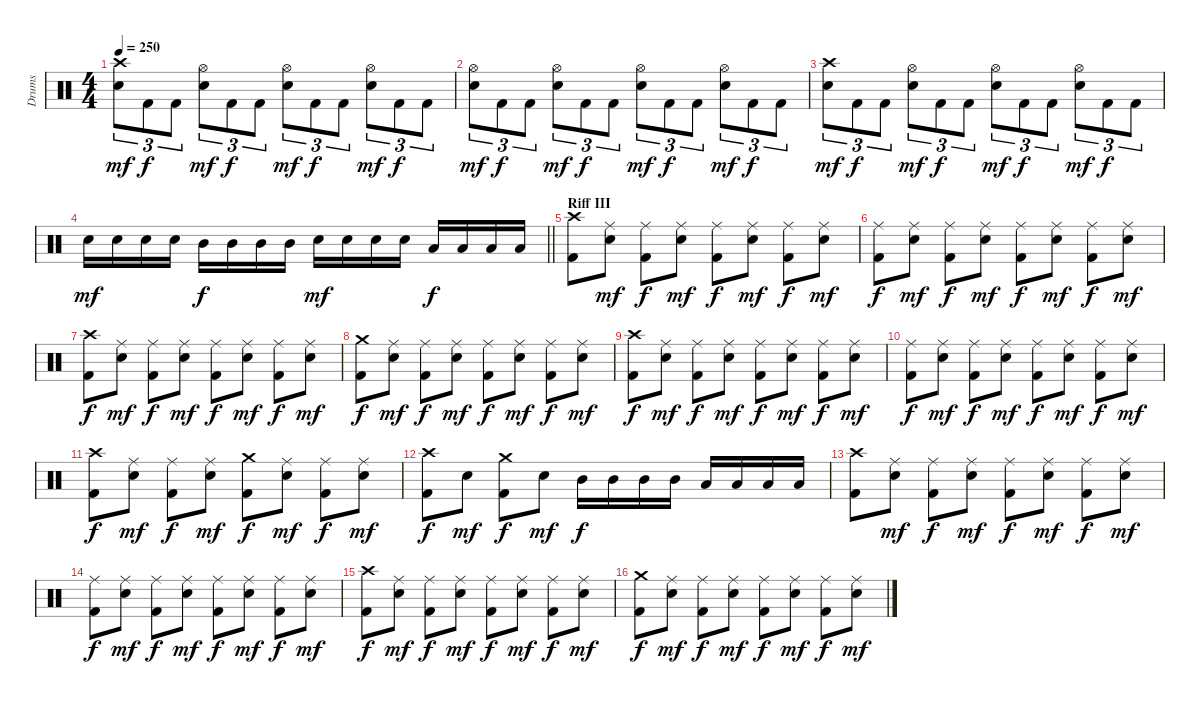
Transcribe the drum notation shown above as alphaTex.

\track ("Drums" "Drums") {instrument percussion}
\staff {score}
\articulation defaults
\ts (4 4)
\tempo 250
\clef neutral
\ks c
("Crash high (hit)" "Electric Snare (hit)").8{tu (3 2) dy mf} "Kick (hit) 2".8{tu (3 2) dy f} "Kick (hit) 2".8{tu (3 2)} ("Hi-Hat (open)" "Electric Snare (hit)").8{tu (3 2) dy mf} "Kick (hit) 2".8{tu (3 2) dy f} "Kick (hit) 2".8{tu (3 2)} ("Hi-Hat (open)" "Electric Snare (hit)").8{tu (3 2) dy mf} "Kick (hit) 2".8{tu (3 2) dy f} "Kick (hit) 2".8{tu (3 2)} ("Hi-Hat (open)" "Electric Snare (hit)").8{tu (3 2) dy mf} "Kick (hit) 2".8{tu (3 2) dy f} "Kick (hit) 2".8{tu (3 2)} |
("Hi-Hat (open)" "Electric Snare (hit)").8{tu (3 2) dy mf} "Kick (hit) 2".8{tu (3 2) dy f} "Kick (hit) 2".8{tu (3 2)} ("Hi-Hat (open)" "Electric Snare (hit)").8{tu (3 2) dy mf} "Kick (hit) 2".8{tu (3 2) dy f} "Kick (hit) 2".8{tu (3 2)} ("Hi-Hat (open)" "Electric Snare (hit)").8{tu (3 2) dy mf} "Kick (hit) 2".8{tu (3 2) dy f} "Kick (hit) 2".8{tu (3 2)} ("Hi-Hat (open)" "Electric Snare (hit)").8{tu (3 2) dy mf} "Kick (hit) 2".8{tu (3 2) dy f} "Kick (hit) 2".8{tu (3 2)} |
("Crash high (hit)" "Electric Snare (hit)").8{tu (3 2) dy mf} "Kick (hit) 2".8{tu (3 2) dy f} "Kick (hit) 2".8{tu (3 2)} ("Hi-Hat (open)" "Electric Snare (hit)").8{tu (3 2) dy mf} "Kick (hit) 2".8{tu (3 2) dy f} "Kick (hit) 2".8{tu (3 2)} ("Hi-Hat (open)" "Electric Snare (hit)").8{tu (3 2) dy mf} "Kick (hit) 2".8{tu (3 2) dy f} "Kick (hit) 2".8{tu (3 2)} ("Hi-Hat (open)" "Electric Snare (hit)").8{tu (3 2) dy mf} "Kick (hit) 2".8{tu (3 2) dy f} "Kick (hit) 2".8{tu (3 2)} |
\barLineRight lightlight "Electric Snare (hit)".16{dy mf} "Electric Snare (hit)".16 "Electric Snare (hit)".16 "Electric Snare (hit)".16 "Mid Tom (hit)".16{dy f} "Mid Tom (hit)".16 "Mid Tom (hit)".16 "Mid Tom (hit)".16 "Electric Snare (hit)".16{dy mf} "Electric Snare (hit)".16 "Electric Snare (hit)".16 "Electric Snare (hit)".16 "Low Tom (hit)".16{dy f} "Low Tom (hit)".16 "Low Tom (hit)".16 "Low Tom (hit)".16
|
\section ("" "Riff III")
("Crash high (hit)" "Kick (hit) 2").8 ("Ride (middle)" "Electric Snare (hit)").8{dy mf} ("Ride (middle)" "Kick (hit) 2").8{dy f} ("Ride (middle)" "Electric Snare (hit)").8{dy mf} ("Ride (middle)" "Kick (hit) 2").8{dy f} ("Ride (middle)" "Electric Snare (hit)").8{dy mf} ("Ride (middle)" "Kick (hit) 2").8{dy f} ("Ride (middle)" "Electric Snare (hit)").8{dy mf} |
("Ride (middle)" "Kick (hit) 2").8{dy f} ("Ride (middle)" "Electric Snare (hit)").8{dy mf} ("Ride (middle)" "Kick (hit) 2").8{dy f} ("Ride (middle)" "Electric Snare (hit)").8{dy mf} ("Ride (middle)" "Kick (hit) 2").8{dy f} ("Ride (middle)" "Electric Snare (hit)").8{dy mf} ("Ride (middle)" "Kick (hit) 2").8{dy f} ("Ride (middle)" "Electric Snare (hit)").8{dy mf} |
("Crash high (hit)" "Kick (hit) 2").8{dy f} ("Ride (middle)" "Electric Snare (hit)").8{dy mf} ("Ride (middle)" "Kick (hit) 2").8{dy f} ("Ride (middle)" "Electric Snare (hit)").8{dy mf} ("Ride (middle)" "Kick (hit) 2").8{dy f} ("Ride (middle)" "Electric Snare (hit)").8{dy mf} ("Ride (middle)" "Kick (hit) 2").8{dy f} ("Ride (middle)" "Electric Snare (hit)").8{dy mf} |
("Crash medium (hit)" "Kick (hit) 2").8{dy f} ("Ride (middle)" "Electric Snare (hit)").8{dy mf} ("Ride (middle)" "Kick (hit) 2").8{dy f} ("Ride (middle)" "Electric Snare (hit)").8{dy mf} ("Ride (middle)" "Kick (hit) 2").8{dy f} ("Ride (middle)" "Electric Snare (hit)").8{dy mf} ("Ride (middle)" "Kick (hit) 2").8{dy f} ("Ride (middle)" "Electric Snare (hit)").8{dy mf} |
("Crash high (hit)" "Kick (hit) 2").8{dy f} ("Ride (middle)" "Electric Snare (hit)").8{dy mf} ("Ride (middle)" "Kick (hit) 2").8{dy f} ("Ride (middle)" "Electric Snare (hit)").8{dy mf} ("Ride (middle)" "Kick (hit) 2").8{dy f} ("Ride (middle)" "Electric Snare (hit)").8{dy mf} ("Ride (middle)" "Kick (hit) 2").8{dy f} ("Ride (middle)" "Electric Snare (hit)").8{dy mf} |
("Ride (middle)" "Kick (hit) 2").8{dy f} ("Ride (middle)" "Electric Snare (hit)").8{dy mf} ("Ride (middle)" "Kick (hit) 2").8{dy f} ("Ride (middle)" "Electric Snare (hit)").8{dy mf} ("Ride (middle)" "Kick (hit) 2").8{dy f} ("Ride (middle)" "Electric Snare (hit)").8{dy mf} ("Ride (middle)" "Kick (hit) 2").8{dy f} ("Ride (middle)" "Electric Snare (hit)").8{dy mf} |
("Crash high (hit)" "Kick (hit) 2").8{dy f} ("Ride (middle)" "Electric Snare (hit)").8{dy mf} ("Ride (middle)" "Kick (hit) 2").8{dy f} ("Ride (middle)" "Electric Snare (hit)").8{dy mf} ("Crash medium (hit)" "Kick (hit) 2").8{dy f} ("Ride (middle)" "Electric Snare (hit)").8{dy mf} ("Ride (middle)" "Kick (hit) 2").8{dy f} ("Ride (middle)" "Electric Snare (hit)").8{dy mf} |
("Crash high (hit)" "Kick (hit) 2").8{dy f} "Electric Snare (hit)".8{dy mf} ("Crash medium (hit)" "Kick (hit) 2").8{dy f} "Electric Snare (hit)".8{dy mf} "Mid Tom (hit)".16{dy f} "Mid Tom (hit)".16 "Mid Tom (hit)".16 "Mid Tom (hit)".16 "Low Tom (hit)".16 "Low Tom (hit)".16 "Low Tom (hit)".16 "Low Tom (hit)".16 |
("Crash high (hit)" "Kick (hit) 2").8 ("Ride (middle)" "Electric Snare (hit)").8{dy mf} ("Ride (middle)" "Kick (hit) 2").8{dy f} ("Ride (middle)" "Electric Snare (hit)").8{dy mf} ("Ride (middle)" "Kick (hit) 2").8{dy f} ("Ride (middle)" "Electric Snare (hit)").8{dy mf} ("Ride (middle)" "Kick (hit) 2").8{dy f} ("Ride (middle)" "Electric Snare (hit)").8{dy mf} |
("Ride (middle)" "Kick (hit) 2").8{dy f} ("Ride (middle)" "Electric Snare (hit)").8{dy mf} ("Ride (middle)" "Kick (hit) 2").8{dy f} ("Ride (middle)" "Electric Snare (hit)").8{dy mf} ("Ride (middle)" "Kick (hit) 2").8{dy f} ("Ride (middle)" "Electric Snare (hit)").8{dy mf} ("Ride (middle)" "Kick (hit) 2").8{dy f} ("Ride (middle)" "Electric Snare (hit)").8{dy mf} |
("Crash high (hit)" "Kick (hit) 2").8{dy f} ("Ride (middle)" "Electric Snare (hit)").8{dy mf} ("Ride (middle)" "Kick (hit) 2").8{dy f} ("Ride (middle)" "Electric Snare (hit)").8{dy mf} ("Ride (middle)" "Kick (hit) 2").8{dy f} ("Ride (middle)" "Electric Snare (hit)").8{dy mf} ("Ride (middle)" "Kick (hit) 2").8{dy f} ("Ride (middle)" "Electric Snare (hit)").8{dy mf} |
("Crash medium (hit)" "Kick (hit) 2").8{dy f} ("Ride (middle)" "Electric Snare (hit)").8{dy mf} ("Ride (middle)" "Kick (hit) 2").8{dy f} ("Ride (middle)" "Electric Snare (hit)").8{dy mf} ("Ride (middle)" "Kick (hit) 2").8{dy f} ("Ride (middle)" "Electric Snare (hit)").8{dy mf} ("Ride (middle)" "Kick (hit) 2").8{dy f} ("Ride (middle)" "Electric Snare (hit)").8{dy mf}
